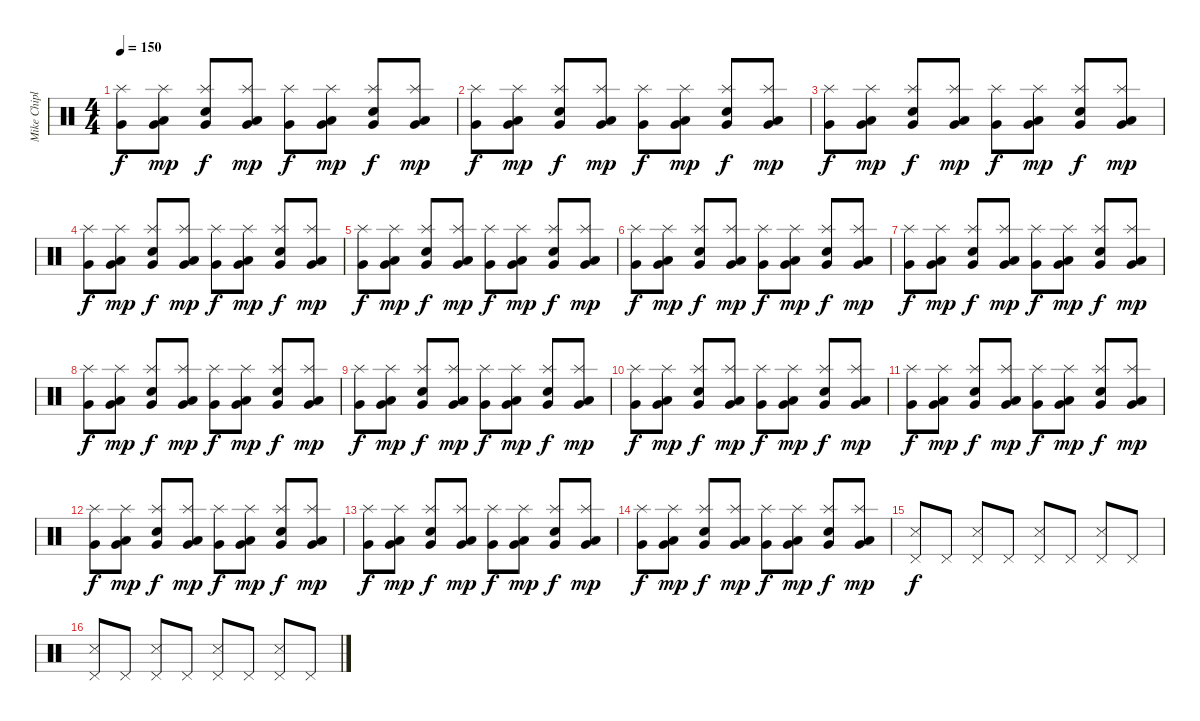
\track ("Mike Chiplin" "Mike Chipl") {instrument percussion}
\staff {score}
\articulation defaults
\ts (4 4)
\tempo 150
\clef neutral
\ks c
("Very Low Tom (hit)" "Splash (hit)").8{dy f} ("Low Floor Tom (hit)" "Very Low Tom (hit)" "Splash (hit)").8{dy mp} ("Very Low Tom (hit)" "Snare (hit) 2" "Splash (hit)").8{dy f} ("Low Floor Tom (hit)" "Very Low Tom (hit)" "Splash (hit)").8{dy mp} ("Very Low Tom (hit)" "Splash (hit)").8{dy f} ("Low Floor Tom (hit)" "Very Low Tom (hit)" "Splash (hit)").8{dy mp} ("Very Low Tom (hit)" "Snare (hit) 2" "Splash (hit)").8{dy f} ("Low Floor Tom (hit)" "Very Low Tom (hit)" "Splash (hit)").8{dy mp} |
("Very Low Tom (hit)" "Splash (hit)").8{dy f} ("Low Floor Tom (hit)" "Very Low Tom (hit)" "Splash (hit)").8{dy mp} ("Very Low Tom (hit)" "Snare (hit) 2" "Splash (hit)").8{dy f} ("Low Floor Tom (hit)" "Very Low Tom (hit)" "Splash (hit)").8{dy mp} ("Very Low Tom (hit)" "Splash (hit)").8{dy f} ("Low Floor Tom (hit)" "Very Low Tom (hit)" "Splash (hit)").8{dy mp} ("Very Low Tom (hit)" "Snare (hit) 2" "Splash (hit)").8{dy f} ("Low Floor Tom (hit)" "Very Low Tom (hit)" "Splash (hit)").8{dy mp} |
("Very Low Tom (hit)" "Splash (hit)").8{dy f} ("Low Floor Tom (hit)" "Very Low Tom (hit)" "Splash (hit)").8{dy mp} ("Very Low Tom (hit)" "Snare (hit) 2" "Splash (hit)").8{dy f} ("Low Floor Tom (hit)" "Very Low Tom (hit)" "Splash (hit)").8{dy mp} ("Very Low Tom (hit)" "Splash (hit)").8{dy f} ("Low Floor Tom (hit)" "Very Low Tom (hit)" "Splash (hit)").8{dy mp} ("Very Low Tom (hit)" "Snare (hit) 2" "Splash (hit)").8{dy f} ("Low Floor Tom (hit)" "Very Low Tom (hit)" "Splash (hit)").8{dy mp} |
("Very Low Tom (hit)" "Splash (hit)").8{dy f} ("Low Floor Tom (hit)" "Very Low Tom (hit)" "Splash (hit)").8{dy mp} ("Very Low Tom (hit)" "Snare (hit) 2" "Splash (hit)").8{dy f} ("Low Floor Tom (hit)" "Very Low Tom (hit)" "Splash (hit)").8{dy mp} ("Very Low Tom (hit)" "Splash (hit)").8{dy f} ("Low Floor Tom (hit)" "Very Low Tom (hit)" "Splash (hit)").8{dy mp} ("Very Low Tom (hit)" "Snare (hit) 2" "Splash (hit)").8{dy f} ("Low Floor Tom (hit)" "Very Low Tom (hit)" "Splash (hit)").8{dy mp} |
("Very Low Tom (hit)" "Splash (hit)").8{dy f} ("Low Floor Tom (hit)" "Very Low Tom (hit)" "Splash (hit)").8{dy mp} ("Very Low Tom (hit)" "Snare (hit) 2" "Splash (hit)").8{dy f} ("Low Floor Tom (hit)" "Very Low Tom (hit)" "Splash (hit)").8{dy mp} ("Very Low Tom (hit)" "Splash (hit)").8{dy f} ("Low Floor Tom (hit)" "Very Low Tom (hit)" "Splash (hit)").8{dy mp} ("Very Low Tom (hit)" "Snare (hit) 2" "Splash (hit)").8{dy f} ("Low Floor Tom (hit)" "Very Low Tom (hit)" "Splash (hit)").8{dy mp} |
("Very Low Tom (hit)" "Splash (hit)").8{dy f} ("Low Floor Tom (hit)" "Very Low Tom (hit)" "Splash (hit)").8{dy mp} ("Very Low Tom (hit)" "Snare (hit) 2" "Splash (hit)").8{dy f} ("Low Floor Tom (hit)" "Very Low Tom (hit)" "Splash (hit)").8{dy mp} ("Very Low Tom (hit)" "Splash (hit)").8{dy f} ("Low Floor Tom (hit)" "Very Low Tom (hit)" "Splash (hit)").8{dy mp} ("Very Low Tom (hit)" "Snare (hit) 2" "Splash (hit)").8{dy f} ("Low Floor Tom (hit)" "Very Low Tom (hit)" "Splash (hit)").8{dy mp} |
("Very Low Tom (hit)" "Splash (hit)").8{dy f} ("Low Floor Tom (hit)" "Very Low Tom (hit)" "Splash (hit)").8{dy mp} ("Very Low Tom (hit)" "Snare (hit) 2" "Splash (hit)").8{dy f} ("Low Floor Tom (hit)" "Very Low Tom (hit)" "Splash (hit)").8{dy mp} ("Very Low Tom (hit)" "Splash (hit)").8{dy f} ("Low Floor Tom (hit)" "Very Low Tom (hit)" "Splash (hit)").8{dy mp} ("Very Low Tom (hit)" "Snare (hit) 2" "Splash (hit)").8{dy f} ("Low Floor Tom (hit)" "Very Low Tom (hit)" "Splash (hit)").8{dy mp} |
("Very Low Tom (hit)" "Splash (hit)").8{dy f} ("Low Floor Tom (hit)" "Very Low Tom (hit)" "Splash (hit)").8{dy mp} ("Very Low Tom (hit)" "Snare (hit) 2" "Splash (hit)").8{dy f} ("Low Floor Tom (hit)" "Very Low Tom (hit)" "Splash (hit)").8{dy mp} ("Very Low Tom (hit)" "Splash (hit)").8{dy f} ("Low Floor Tom (hit)" "Very Low Tom (hit)" "Splash (hit)").8{dy mp} ("Very Low Tom (hit)" "Snare (hit) 2" "Splash (hit)").8{dy f} ("Low Floor Tom (hit)" "Very Low Tom (hit)" "Splash (hit)").8{dy mp} |
("Very Low Tom (hit)" "Splash (hit)").8{dy f} ("Low Floor Tom (hit)" "Very Low Tom (hit)" "Splash (hit)").8{dy mp} ("Very Low Tom (hit)" "Snare (hit) 2" "Splash (hit)").8{dy f} ("Low Floor Tom (hit)" "Very Low Tom (hit)" "Splash (hit)").8{dy mp} ("Very Low Tom (hit)" "Splash (hit)").8{dy f} ("Low Floor Tom (hit)" "Very Low Tom (hit)" "Splash (hit)").8{dy mp} ("Very Low Tom (hit)" "Snare (hit) 2" "Splash (hit)").8{dy f} ("Low Floor Tom (hit)" "Very Low Tom (hit)" "Splash (hit)").8{dy mp} |
("Very Low Tom (hit)" "Splash (hit)").8{dy f} ("Low Floor Tom (hit)" "Very Low Tom (hit)" "Splash (hit)").8{dy mp} ("Very Low Tom (hit)" "Snare (hit) 2" "Splash (hit)").8{dy f} ("Low Floor Tom (hit)" "Very Low Tom (hit)" "Splash (hit)").8{dy mp} ("Very Low Tom (hit)" "Splash (hit)").8{dy f} ("Low Floor Tom (hit)" "Very Low Tom (hit)" "Splash (hit)").8{dy mp} ("Very Low Tom (hit)" "Snare (hit) 2" "Splash (hit)").8{dy f} ("Low Floor Tom (hit)" "Very Low Tom (hit)" "Splash (hit)").8{dy mp} |
("Very Low Tom (hit)" "Splash (hit)").8{dy f} ("Low Floor Tom (hit)" "Very Low Tom (hit)" "Splash (hit)").8{dy mp} ("Very Low Tom (hit)" "Snare (hit) 2" "Splash (hit)").8{dy f} ("Low Floor Tom (hit)" "Very Low Tom (hit)" "Splash (hit)").8{dy mp} ("Very Low Tom (hit)" "Splash (hit)").8{dy f} ("Low Floor Tom (hit)" "Very Low Tom (hit)" "Splash (hit)").8{dy mp} ("Very Low Tom (hit)" "Snare (hit) 2" "Splash (hit)").8{dy f} ("Low Floor Tom (hit)" "Very Low Tom (hit)" "Splash (hit)").8{dy mp} |
("Very Low Tom (hit)" "Splash (hit)").8{dy f} ("Low Floor Tom (hit)" "Very Low Tom (hit)" "Splash (hit)").8{dy mp} ("Very Low Tom (hit)" "Snare (hit) 2" "Splash (hit)").8{dy f} ("Low Floor Tom (hit)" "Very Low Tom (hit)" "Splash (hit)").8{dy mp} ("Very Low Tom (hit)" "Splash (hit)").8{dy f} ("Low Floor Tom (hit)" "Very Low Tom (hit)" "Splash (hit)").8{dy mp} ("Very Low Tom (hit)" "Snare (hit) 2" "Splash (hit)").8{dy f} ("Low Floor Tom (hit)" "Very Low Tom (hit)" "Splash (hit)").8{dy mp} |
("Very Low Tom (hit)" "Splash (hit)").8{dy f} ("Low Floor Tom (hit)" "Very Low Tom (hit)" "Splash (hit)").8{dy mp} ("Very Low Tom (hit)" "Snare (hit) 2" "Splash (hit)").8{dy f} ("Low Floor Tom (hit)" "Very Low Tom (hit)" "Splash (hit)").8{dy mp} ("Very Low Tom (hit)" "Splash (hit)").8{dy f} ("Low Floor Tom (hit)" "Very Low Tom (hit)" "Splash (hit)").8{dy mp} ("Very Low Tom (hit)" "Snare (hit) 2" "Splash (hit)").8{dy f} ("Low Floor Tom (hit)" "Very Low Tom (hit)" "Splash (hit)").8{dy mp} |
("Very Low Tom (hit)" "Splash (hit)").8{dy f} ("Low Floor Tom (hit)" "Very Low Tom (hit)" "Splash (hit)").8{dy mp} ("Very Low Tom (hit)" "Snare (hit) 2" "Splash (hit)").8{dy f} ("Low Floor Tom (hit)" "Very Low Tom (hit)" "Splash (hit)").8{dy mp} ("Very Low Tom (hit)" "Splash (hit)").8{dy f} ("Low Floor Tom (hit)" "Very Low Tom (hit)" "Splash (hit)").8{dy mp} ("Very Low Tom (hit)" "Snare (hit) 2" "Splash (hit)").8{dy f} ("Low Floor Tom (hit)" "Very Low Tom (hit)" "Splash (hit)").8{dy mp} |
("Pedal Hi-Hat (hit)" "Snare (side stick) 3").8{dy f} "Pedal Hi-Hat (hit)".8 ("Pedal Hi-Hat (hit)" "Snare (side stick) 3").8 "Pedal Hi-Hat (hit)".8 ("Pedal Hi-Hat (hit)" "Snare (side stick) 3").8 "Pedal Hi-Hat (hit)".8 ("Pedal Hi-Hat (hit)" "Snare (side stick) 3").8 "Pedal Hi-Hat (hit)".8 |
("Pedal Hi-Hat (hit)" "Snare (side stick) 3").8 "Pedal Hi-Hat (hit)".8 ("Pedal Hi-Hat (hit)" "Snare (side stick) 3").8 "Pedal Hi-Hat (hit)".8 ("Pedal Hi-Hat (hit)" "Snare (side stick) 3").8 "Pedal Hi-Hat (hit)".8 ("Pedal Hi-Hat (hit)" "Snare (side stick) 3").8 "Pedal Hi-Hat (hit)".8
